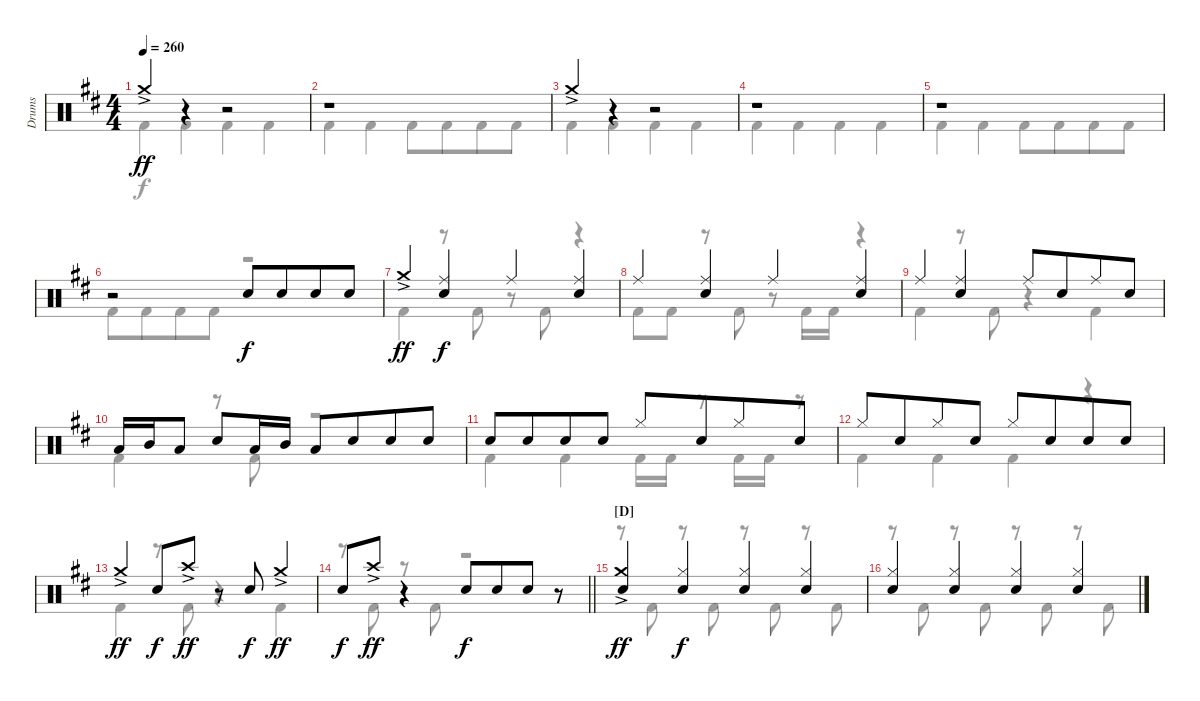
\track ("Drums" "Drums") {instrument percussion}
\staff {score}
\articulation defaults
\voice
\ts (4 4)
\tempo 260
\clef neutral
\ks bminor "Crash medium (hit)"{ac}.4{dy ff}
r.4 r.2 |
r.1 |
"Crash medium (hit)"{ac}.4 r.4 r.2 |
r.1 |
r.1 |
r.2 "Snare (hit) 2".8{dy f} "Snare (hit) 2".8{beam merge} "Snare (hit) 2".8 "Snare (hit) 2".8 |
"Crash medium (hit)"{ac}.4{dy ff} ("Ride (middle)" "Snare (hit) 2").4{dy f} "Ride (middle)".4 ("Ride (middle)" "Snare (hit) 2").4 |
"Ride (middle)".4 ("Ride (middle)" "Snare (hit) 2").4 "Ride (middle)".4 ("Ride (middle)" "Snare (hit) 2").4 |
"Ride (middle)".4 ("Ride (middle)" "Snare (hit) 2").4 "Ride (middle)".8 "Snare (hit) 2".8{beam merge} "Ride (middle)".8 "Snare (hit) 2".8 |
"Low Tom (hit)".16 "Mid Tom (hit)".16 "Low Tom (hit)".8 "Snare (hit) 2".8 "Low Tom (hit)".16 "Mid Tom (hit)".16 "Low Tom (hit)".8 "Snare (hit) 2".8{beam merge} "Snare (hit) 2".8 "Snare (hit) 2".8 |
"Snare (hit) 2".8 "Snare (hit) 2".8{beam merge} "Snare (hit) 2".8 "Snare (hit) 2".8 "Hi-Hat (closed)".8 "Snare (hit) 2".8{beam merge} "Hi-Hat (closed)".8 "Snare (hit) 2".8 |
"Hi-Hat (closed)".8 "Snare (hit) 2".8{beam merge} "Hi-Hat (closed)".8 "Snare (hit) 2".8 "Hi-Hat (closed)".8 "Snare (hit) 2".8{beam merge} "Snare (hit) 2".8 "Snare (hit) 2".8 |
"Crash medium (hit)"{ac}.4{dy ff} "Snare (hit) 2".8{dy f} "Crash high (hit)"{ac}.8{dy ff} r.8 "Snare (hit) 2".8{dy f} "Crash medium (hit)"{ac}.4{dy ff} |
\barLineRight lightlight "Snare (hit) 2".8{dy f} "Crash high (hit)"{ac}.8{dy ff}
r.4 "Snare (hit) 2".8{dy f} "Snare (hit) 2".8{beam merge} "Snare (hit) 2".8 r.8 |
\section ("" "[D]")
("Crash medium (hit)"{ac} "Snare (hit) 2").4{dy ff} ("Hi-Hat (closed)" "Snare (hit) 2").4{dy f} ("Hi-Hat (closed)" "Snare (hit) 2").4 ("Hi-Hat (closed)" "Snare (hit) 2").4 |
("Hi-Hat (closed)" "Snare (hit) 2").4 ("Hi-Hat (closed)" "Snare (hit) 2").4 ("Hi-Hat (closed)" "Snare (hit) 2").4 ("Hi-Hat (closed)" "Snare (hit) 2").4
\voice
\clef neutral
\ottava regular
\simile none
\ks bminor "Kick (hit) 2".4{dy f} "Kick (hit) 2".4 "Kick (hit) 2".4 "Kick (hit) 2".4
|
"Kick (hit) 2".4 "Kick (hit) 2".4 "Kick (hit) 2".8 "Kick (hit) 2".8{beam merge} "Kick (hit) 2".8 "Kick (hit) 2".8 |
"Kick (hit) 2".4 "Kick (hit) 2".4 "Kick (hit) 2".4 "Kick (hit) 2".4 |
"Kick (hit) 2".4 "Kick (hit) 2".4 "Kick (hit) 2".4 "Kick (hit) 2".4 |
"Kick (hit) 2".4 "Kick (hit) 2".4 "Kick (hit) 2".8 "Kick (hit) 2".8{beam merge} "Kick (hit) 2".8 "Kick (hit) 2".8 |
"Kick (hit) 2".8 "Kick (hit) 2".8{beam merge} "Kick (hit) 2".8 "Kick (hit) 2".8 r.2 |
"Kick (hit) 2".4 r.8 "Kick (hit) 2".8 r.8 "Kick (hit) 2".8 r.4 |
"Kick (hit) 2".8 "Kick (hit) 2".8 r.8 "Kick (hit) 2".8 r.8 "Kick (hit) 2".16 "Kick (hit) 2".16 r.4 |
"Kick (hit) 2".4 r.8 "Kick (hit) 2".8 r.4 "Kick (hit) 2".4 |
"Kick (hit) 2".4 r.8 "Kick (hit) 2".8 r.2 |
"Kick (hit) 2".4 "Kick (hit) 2".4 "Kick (hit) 2".16 "Kick (hit) 2".16 r.8 "Kick (hit) 2".16 "Kick (hit) 2".16 r.8 |
"Kick (hit) 2".4 "Kick (hit) 2".4 "Kick (hit) 2".4 r.4 |
"Kick (hit) 2".4 r.8 "Kick (hit) 2".8 r.4 "Kick (hit) 2".4 |
\barLineRight lightlight
r.8 "Kick (hit) 2".8 r.8 "Kick (hit) 2".8 r.2 |
r.8 "Kick (hit) 2".8 r.8 "Kick (hit) 2".8 r.8 "Kick (hit) 2".8 r.8 "Kick (hit) 2".8 |
r.8 "Kick (hit) 2".8 r.8 "Kick (hit) 2".8 r.8 "Kick (hit) 2".8 r.8 "Kick (hit) 2".8
